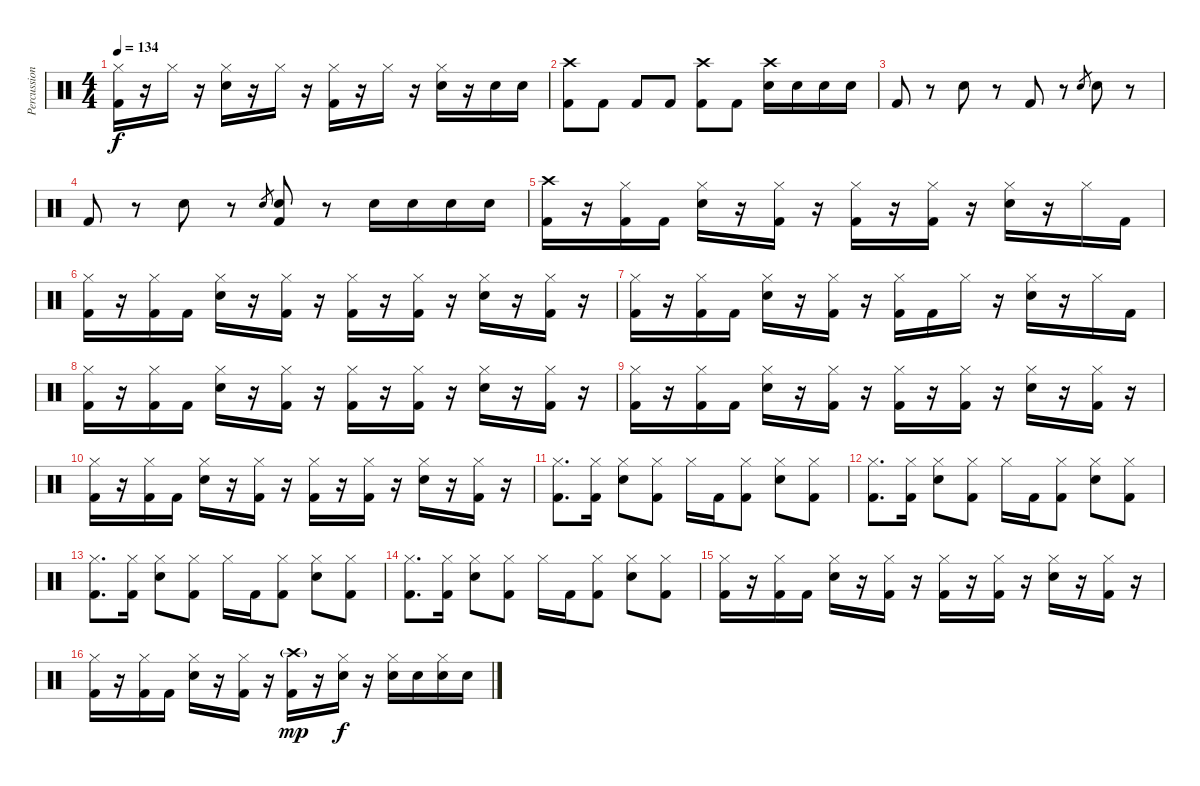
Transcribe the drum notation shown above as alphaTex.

\track ("Percussion" "Percussion") {instrument percussion}
\staff {score}
\articulation defaults
\ts (4 4)
\tempo 134
\clef neutral
\ks c
("Hi-Hat (closed)" "Kick (hit) 2").16{dy f} r.16 "Hi-Hat (closed)".16 r.16 ("Hi-Hat (closed)" "Snare (hit) 2").16 r.16 "Hi-Hat (closed)".16 r.16 ("Hi-Hat (closed)" "Kick (hit) 2").16 r.16 "Hi-Hat (closed)".16 r.16 ("Hi-Hat (closed)" "Snare (hit) 2").16 r.16 "Snare (hit) 2".16 "Snare (hit) 2".16 |
("Crash high (hit)" "Kick (hit) 2").8 "Kick (hit) 2".8 "Kick (hit) 2".8 "Kick (hit) 2".8 ("Crash high (hit)" "Kick (hit) 2").8 "Kick (hit) 2".8 ("Crash high (hit)" "Snare (hit) 2").16 "Snare (hit) 2".16 "Snare (hit) 2".16 "Snare (hit) 2".16 |
"Kick (hit) 2".8 r.8 "Snare (hit) 2".8 r.8 "Kick (hit) 2".8 r.8 "Snare (hit) 2".8{gr} "Snare (hit) 2".8 r.8 |
"Kick (hit) 2".8 r.8 "Snare (hit) 2".8 r.8 "Snare (hit) 2".8{gr} ("Snare (hit) 2" "Kick (hit) 2").8 r.8 "Snare (hit) 2".16 "Snare (hit) 2".16 "Snare (hit) 2".16 "Snare (hit) 2".16 |
("Crash high (hit)" "Kick (hit) 2").16 r.16 ("Hi-Hat (closed)" "Kick (hit) 2").16 "Kick (hit) 2".16 ("Hi-Hat (closed)" "Snare (hit) 2").16 r.16 ("Hi-Hat (closed)" "Kick (hit) 2").16 r.16 ("Hi-Hat (closed)" "Kick (hit) 2").16 r.16 ("Hi-Hat (closed)" "Kick (hit) 2").16 r.16 ("Hi-Hat (closed)" "Snare (hit) 2").16 r.16 "Hi-Hat (closed)".16 "Kick (hit) 2".16 |
("Hi-Hat (closed)" "Kick (hit) 2").16 r.16 ("Hi-Hat (closed)" "Kick (hit) 2").16 "Kick (hit) 2".16 ("Hi-Hat (closed)" "Snare (hit) 2").16 r.16 ("Hi-Hat (closed)" "Kick (hit) 2").16 r.16 ("Hi-Hat (closed)" "Kick (hit) 2").16 r.16 ("Hi-Hat (closed)" "Kick (hit) 2").16 r.16 ("Hi-Hat (closed)" "Snare (hit) 2").16 r.16 ("Hi-Hat (closed)" "Kick (hit) 2").16 r.16 |
("Hi-Hat (closed)" "Kick (hit) 2").16 r.16 ("Hi-Hat (closed)" "Kick (hit) 2").16 "Kick (hit) 2".16 ("Hi-Hat (closed)" "Snare (hit) 2").16 r.16 ("Hi-Hat (closed)" "Kick (hit) 2").16 r.16 ("Hi-Hat (closed)" "Kick (hit) 2").16 "Kick (hit) 2".16 "Hi-Hat (closed)".16 r.16 ("Hi-Hat (closed)" "Snare (hit) 2").16 r.16 "Hi-Hat (closed)".16 "Kick (hit) 2".16 |
("Hi-Hat (closed)" "Kick (hit) 2").16 r.16 ("Hi-Hat (closed)" "Kick (hit) 2").16 "Kick (hit) 2".16 ("Hi-Hat (closed)" "Snare (hit) 2").16 r.16 ("Hi-Hat (closed)" "Kick (hit) 2").16 r.16 ("Hi-Hat (closed)" "Kick (hit) 2").16 r.16 ("Hi-Hat (closed)" "Kick (hit) 2").16 r.16 ("Hi-Hat (closed)" "Snare (hit) 2").16 r.16 ("Hi-Hat (closed)" "Kick (hit) 2").16 r.16 |
("Hi-Hat (closed)" "Kick (hit) 2").16 r.16 ("Hi-Hat (closed)" "Kick (hit) 2").16 "Kick (hit) 2".16 ("Hi-Hat (closed)" "Snare (hit) 2").16 r.16 ("Hi-Hat (closed)" "Kick (hit) 2").16 r.16 ("Hi-Hat (closed)" "Kick (hit) 2").16 r.16 ("Hi-Hat (closed)" "Kick (hit) 2").16 r.16 ("Hi-Hat (closed)" "Snare (hit) 2").16 r.16 ("Hi-Hat (closed)" "Kick (hit) 2").16 r.16 |
("Hi-Hat (closed)" "Kick (hit) 2").16 r.16 ("Hi-Hat (closed)" "Kick (hit) 2").16 "Kick (hit) 2".16 ("Hi-Hat (closed)" "Snare (hit) 2").16 r.16 ("Hi-Hat (closed)" "Kick (hit) 2").16 r.16 ("Hi-Hat (closed)" "Kick (hit) 2").16 r.16 ("Hi-Hat (closed)" "Kick (hit) 2").16 r.16 ("Hi-Hat (closed)" "Snare (hit) 2").16 r.16 ("Hi-Hat (closed)" "Kick (hit) 2").16 r.16 |
("Hi-Hat (closed)" "Kick (hit) 2").8{d} ("Hi-Hat (closed)" "Kick (hit) 2").16 ("Hi-Hat (closed)" "Snare (hit) 2").8 ("Hi-Hat (closed)" "Kick (hit) 2").8 "Hi-Hat (closed)".16 "Kick (hit) 2".16 ("Hi-Hat (closed)" "Kick (hit) 2").8 ("Hi-Hat (closed)" "Snare (hit) 2").8 ("Hi-Hat (closed)" "Kick (hit) 2").8 |
("Hi-Hat (closed)" "Kick (hit) 2").8{d} ("Hi-Hat (closed)" "Kick (hit) 2").16 ("Hi-Hat (closed)" "Snare (hit) 2").8 ("Hi-Hat (closed)" "Kick (hit) 2").8 "Hi-Hat (closed)".16 "Kick (hit) 2".16 ("Hi-Hat (closed)" "Kick (hit) 2").8 ("Hi-Hat (closed)" "Snare (hit) 2").8 ("Hi-Hat (closed)" "Kick (hit) 2").8 |
("Hi-Hat (closed)" "Kick (hit) 2").8{d} ("Hi-Hat (closed)" "Kick (hit) 2").16 ("Hi-Hat (closed)" "Snare (hit) 2").8 ("Hi-Hat (closed)" "Kick (hit) 2").8 "Hi-Hat (closed)".16 "Kick (hit) 2".16 ("Hi-Hat (closed)" "Kick (hit) 2").8 ("Hi-Hat (closed)" "Snare (hit) 2").8 ("Hi-Hat (closed)" "Kick (hit) 2").8 |
("Hi-Hat (closed)" "Kick (hit) 2").8{d} ("Hi-Hat (closed)" "Kick (hit) 2").16 ("Hi-Hat (closed)" "Snare (hit) 2").8 ("Hi-Hat (closed)" "Kick (hit) 2").8 "Hi-Hat (closed)".16 "Kick (hit) 2".16 ("Hi-Hat (closed)" "Kick (hit) 2").8 ("Hi-Hat (closed)" "Snare (hit) 2").8 ("Hi-Hat (closed)" "Kick (hit) 2").8 |
("Hi-Hat (closed)" "Kick (hit) 2").16 r.16 ("Hi-Hat (closed)" "Kick (hit) 2").16 "Kick (hit) 2".16 ("Hi-Hat (closed)" "Snare (hit) 2").16 r.16 ("Hi-Hat (closed)" "Kick (hit) 2").16 r.16 ("Hi-Hat (closed)" "Kick (hit) 2").16 r.16 ("Hi-Hat (closed)" "Kick (hit) 2").16 r.16 ("Hi-Hat (closed)" "Snare (hit) 2").16 r.16 ("Hi-Hat (closed)" "Kick (hit) 2").16 r.16 |
("Hi-Hat (closed)" "Kick (hit) 2").16 r.16 ("Hi-Hat (closed)" "Kick (hit) 2").16 "Kick (hit) 2".16 ("Hi-Hat (closed)" "Snare (hit) 2").16 r.16 ("Hi-Hat (closed)" "Kick (hit) 2").16 r.16 ("Crash high (hit)"{g} "Kick (hit) 2").16{dy mp} r.16 ("Hi-Hat (closed)" "Snare (hit) 2").16{dy f} r.16 ("Hi-Hat (closed)" "Snare (hit) 2").16 "Snare (hit) 2".16 ("Hi-Hat (closed)" "Snare (hit) 2").16 "Snare (hit) 2".16
